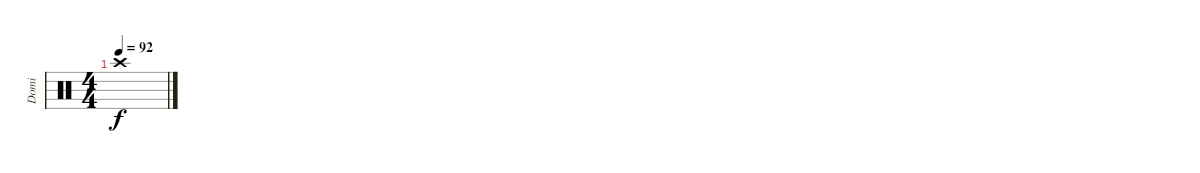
\track ("Domi" "Domi") {instrument percussion}
\staff {score}
\articulation defaults
\ts (4 4)
\tempo 92
\clef neutral
\ks c "Crash high (hit)".1{dy f}
